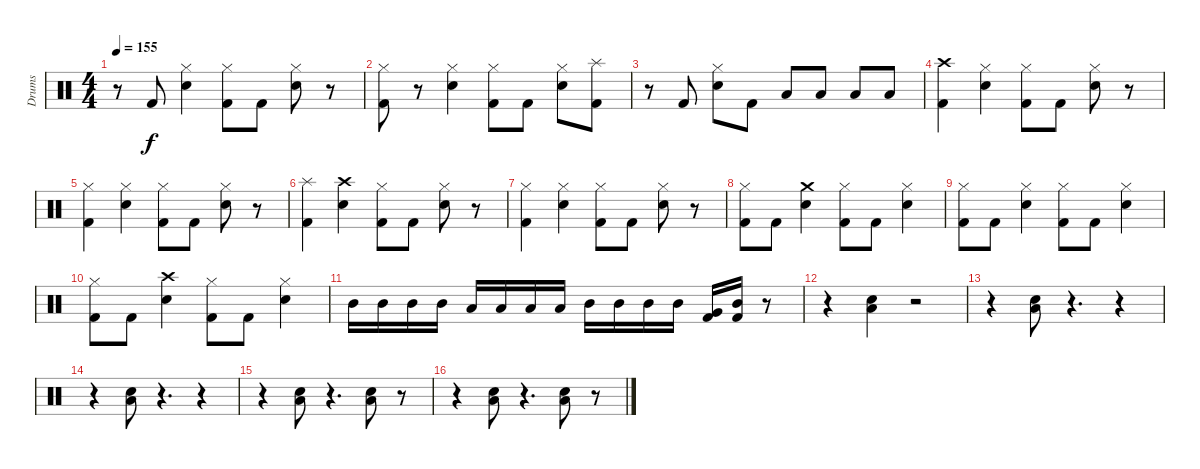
\track ("Drums" "Drums") {instrument percussion}
\staff {score}
\articulation defaults
\ts (4 4)
\tempo 155
\clef neutral
\ks c
r.8{dy f} "Kick (hit) 2".8 ("Hi-Hat (closed)" "Snare (hit) 2").4 ("Hi-Hat (closed)" "Kick (hit) 2").8 "Kick (hit) 2".8 ("Hi-Hat (closed)" "Snare (hit) 2").8 r.8 |
("Hi-Hat (closed)" "Kick (hit) 2").8 r.8 ("Hi-Hat (closed)" "Snare (hit) 2").4 ("Hi-Hat (closed)" "Kick (hit) 2").8 "Kick (hit) 2".8 ("Hi-Hat (closed)" "Snare (hit) 2").8 ("Splash (hit)" "Kick (hit) 2").8 |
r.8 "Kick (hit) 2".8 ("Hi-Hat (closed)" "Snare (hit) 2").8 "Kick (hit) 2".8 "Low Tom (hit)".8 "Low Tom (hit)".8 "Low Tom (hit)".8 "Low Tom (hit)".8 |
("Crash high (hit)" "Kick (hit) 2").4 ("Hi-Hat (closed)" "Snare (hit) 2").4 ("Hi-Hat (closed)" "Kick (hit) 2").8 "Kick (hit) 2".8 ("Hi-Hat (closed)" "Snare (hit) 2").8 r.8 |
("Hi-Hat (closed)" "Kick (hit) 2").4 ("Hi-Hat (closed)" "Snare (hit) 2").4 ("Hi-Hat (closed)" "Kick (hit) 2").8 "Kick (hit) 2".8 ("Hi-Hat (closed)" "Snare (hit) 2").8 r.8 |
("Splash (hit)" "Kick (hit) 2").4 ("Crash high (hit)" "Snare (hit) 2").4 ("Hi-Hat (closed)" "Kick (hit) 2").8 "Kick (hit) 2".8 ("Hi-Hat (closed)" "Snare (hit) 2").8 r.8 |
("Hi-Hat (closed)" "Kick (hit) 2").4 ("Hi-Hat (closed)" "Snare (hit) 2").4 ("Hi-Hat (closed)" "Kick (hit) 2").8 "Kick (hit) 2".8 ("Hi-Hat (closed)" "Snare (hit) 2").8 r.8 |
("Hi-Hat (closed)" "Kick (hit) 2").8 "Kick (hit) 2".8 ("Crash medium (hit)" "Snare (hit) 2").4 ("Hi-Hat (closed)" "Kick (hit) 2").8 "Kick (hit) 2".8 ("Hi-Hat (closed)" "Snare (hit) 2").4 |
("Hi-Hat (closed)" "Kick (hit) 2").8 "Kick (hit) 2".8 ("Hi-Hat (closed)" "Snare (hit) 2").4 ("Hi-Hat (closed)" "Kick (hit) 2").8 "Kick (hit) 2".8 ("Hi-Hat (closed)" "Snare (hit) 2").4 |
("Hi-Hat (closed)" "Kick (hit) 2").8 "Kick (hit) 2".8 ("Crash high (hit)" "Snare (hit) 2").4 ("Hi-Hat (closed)" "Kick (hit) 2").8 "Kick (hit) 2".8 ("Hi-Hat (closed)" "Snare (hit) 2").4 |
"Mid Tom (hit)".16 "Mid Tom (hit)".16 "Mid Tom (hit)".16 "Mid Tom (hit)".16 "Low Tom (hit)".16 "Low Tom (hit)".16 "Low Tom (hit)".16 "Low Tom (hit)".16 "Mid Tom (hit)".16 "Mid Tom (hit)".16 "Mid Tom (hit)".16 "Mid Tom (hit)".16 ("Very Low Tom (hit)" "Kick (hit) 2").16 ("Mid Tom (hit)" "Kick (hit) 2").16 r.8 |
r.4 ("Low Tom (hit)" "Snare (hit) 2").4 r.2 |
r.4 ("Low Tom (hit)" "Snare (hit) 2").8 r.4{d} r.4 |
r.4 ("Low Tom (hit)" "Snare (hit) 2").8 r.4{d} r.4 |
r.4 ("Low Tom (hit)" "Snare (hit) 2").8 r.4{d} ("Low Tom (hit)" "Snare (hit) 2").8 r.8 |
r.4 ("Low Tom (hit)" "Snare (hit) 2").8 r.4{d} ("Low Tom (hit)" "Snare (hit) 2").8 r.8
